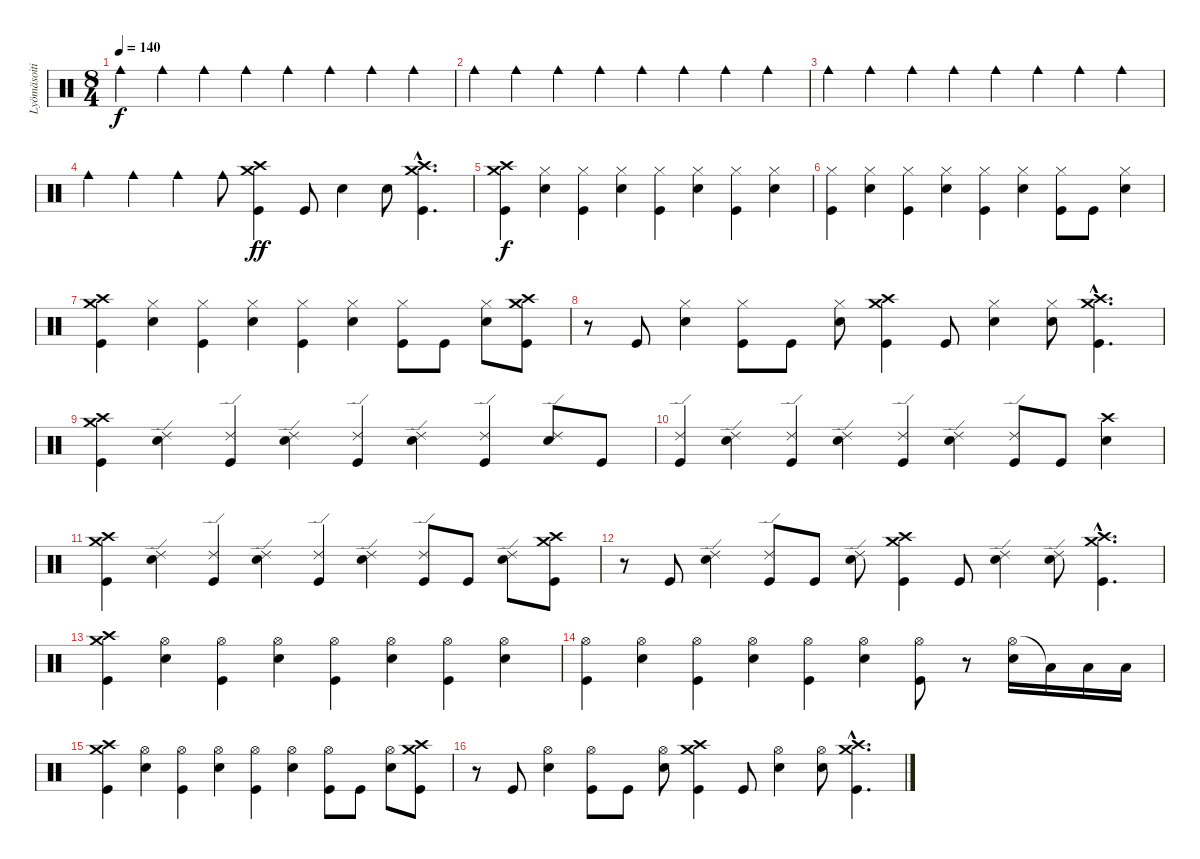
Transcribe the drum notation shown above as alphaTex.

\track ("Lyömäsoitin" "Lyömäsoiti") {instrument percussion}
\staff {score}
\articulation defaults
\ts (8 4)
\tempo 140
\clef neutral
\ks c "Cowbell medium (hit)".4{dy f} "Cowbell medium (hit)".4 "Cowbell medium (hit)".4 "Cowbell medium (hit)".4 "Cowbell medium (hit)".4 "Cowbell medium (hit)".4 "Cowbell medium (hit)".4 "Cowbell medium (hit)".4
|
"Cowbell medium (hit)".4 "Cowbell medium (hit)".4 "Cowbell medium (hit)".4 "Cowbell medium (hit)".4 "Cowbell medium (hit)".4 "Cowbell medium (hit)".4 "Cowbell medium (hit)".4 "Cowbell medium (hit)".4 |
"Cowbell medium (hit)".4 "Cowbell medium (hit)".4 "Cowbell medium (hit)".4 "Cowbell medium (hit)".4 "Cowbell medium (hit)".4 "Cowbell medium (hit)".4 "Cowbell medium (hit)".4 "Cowbell medium (hit)".4 |
"Cowbell medium (hit)".4 "Cowbell medium (hit)".4 "Cowbell medium (hit)".4 "Cowbell medium (hit)".8 ("Crash medium (hit)" "Crash high (hit)" "Kick (hit)").4{dy ff} "Kick (hit)".8 "Snare (hit) 2".4 "Snare (hit) 2".8 ("Crash medium (hit)"{hac} "Crash high (hit)"{hac} "Kick (hit)"{hac}).4{d} |
("Crash medium (hit)" "Crash high (hit)" "Kick (hit)").4{dy f} ("Hi-Hat (closed)" "Snare (hit) 2").4 ("Hi-Hat (closed)" "Kick (hit)").4 ("Hi-Hat (closed)" "Snare (hit) 2").4 ("Hi-Hat (closed)" "Kick (hit)").4 ("Hi-Hat (closed)" "Snare (hit) 2").4 ("Hi-Hat (closed)" "Kick (hit)").4 ("Hi-Hat (closed)" "Snare (hit) 2").4 |
("Hi-Hat (closed)" "Kick (hit)").4 ("Hi-Hat (closed)" "Snare (hit) 2").4 ("Hi-Hat (closed)" "Kick (hit)").4 ("Hi-Hat (closed)" "Snare (hit) 2").4 ("Hi-Hat (closed)" "Kick (hit)").4 ("Hi-Hat (closed)" "Snare (hit) 2").4 ("Hi-Hat (closed)" "Kick (hit)").8 "Kick (hit)".8 ("Hi-Hat (closed)" "Snare (hit) 2").4 |
("Crash medium (hit)" "Crash high (hit)" "Kick (hit)").4 ("Hi-Hat (closed)" "Snare (hit) 2").4 ("Hi-Hat (closed)" "Kick (hit)").4 ("Hi-Hat (closed)" "Snare (hit) 2").4 ("Hi-Hat (closed)" "Kick (hit)").4 ("Hi-Hat (closed)" "Snare (hit) 2").4 ("Hi-Hat (closed)" "Kick (hit)").8 "Kick (hit)".8 ("Hi-Hat (closed)" "Snare (hit) 2").8 ("Crash medium (hit)" "Crash high (hit)" "Kick (hit)").8 |
r.8 "Kick (hit)".8 ("Hi-Hat (closed)" "Snare (hit) 2").4 ("Hi-Hat (closed)" "Kick (hit)").8 "Kick (hit)".8 ("Hi-Hat (closed)" "Snare (hit) 2").8 ("Crash medium (hit)" "Crash high (hit)" "Kick (hit)").4 "Kick (hit)".8 ("Hi-Hat (closed)" "Snare (hit) 2").4 ("Hi-Hat (closed)" "Snare (hit) 2").8 ("Crash medium (hit)"{hac} "Crash high (hit)"{hac} "Kick (hit)"{hac}).4{d} |
("Crash medium (hit)" "Crash high (hit)" "Kick (hit)").4 ("Ride (edge) 2" "Snare (hit) 2").4 ("Ride (edge) 2" "Kick (hit)").4 ("Ride (edge) 2" "Snare (hit) 2").4 ("Ride (edge) 2" "Kick (hit)").4 ("Ride (edge) 2" "Snare (hit) 2").4 ("Ride (edge) 2" "Kick (hit)").4 ("Ride (edge) 2" "Snare (hit) 2").8 "Kick (hit)".8 |
("Ride (edge) 2" "Kick (hit)").4 ("Ride (edge) 2" "Snare (hit) 2").4 ("Ride (edge) 2" "Kick (hit)").4 ("Ride (edge) 2" "Snare (hit) 2").4 ("Ride (edge) 2" "Kick (hit)").4 ("Ride (edge) 2" "Snare (hit) 2").4 ("Ride (edge) 2" "Kick (hit)").8 "Kick (hit)".8 ("Crash high (hit)" "Snare (hit) 2").4 |
("Crash medium (hit)" "Crash high (hit)" "Kick (hit)").4 ("Ride (edge) 2" "Snare (hit) 2").4 ("Ride (edge) 2" "Kick (hit)").4 ("Ride (edge) 2" "Snare (hit) 2").4 ("Ride (edge) 2" "Kick (hit)").4 ("Ride (edge) 2" "Snare (hit) 2").4 ("Ride (edge) 2" "Kick (hit)").8 "Kick (hit)".8 ("Ride (edge) 2" "Snare (hit) 2").8 ("Crash medium (hit)" "Crash high (hit)" "Kick (hit)").8 |
r.8 "Kick (hit)".8 ("Ride (edge) 2" "Snare (hit) 2").4 ("Ride (edge) 2" "Kick (hit)").8 "Kick (hit)".8 ("Ride (edge) 2" "Snare (hit) 2").8 ("Crash medium (hit)" "Crash high (hit)" "Kick (hit)").4 "Kick (hit)".8 ("Ride (edge) 2" "Snare (hit) 2").4 ("Ride (edge) 2" "Snare (hit) 2").8 ("Crash medium (hit)"{hac} "Crash high (hit)"{hac} "Kick (hit)"{hac}).4{d} |
("Crash medium (hit)" "Crash high (hit)" "Kick (hit)").4 ("Hi-Hat (open)" "Snare (hit) 2").4 ("Hi-Hat (open)" "Kick (hit)").4 ("Hi-Hat (open)" "Snare (hit) 2").4 ("Hi-Hat (open)" "Kick (hit)").4 ("Hi-Hat (open)" "Snare (hit) 2").4 ("Hi-Hat (open)" "Kick (hit)").4 ("Hi-Hat (open)" "Snare (hit) 2").4 |
("Hi-Hat (open)" "Kick (hit)").4 ("Hi-Hat (open)" "Snare (hit) 2").4 ("Hi-Hat (open)" "Kick (hit)").4 ("Hi-Hat (open)" "Snare (hit) 2").4 ("Hi-Hat (open)" "Kick (hit)").4 ("Hi-Hat (open)" "Snare (hit) 2").4 ("Hi-Hat (open)" "Kick (hit)").8 r.8 ("Hi-Hat (open)" "Snare (hit) 2").16 "Low Tom (hit)"{t}.16 "Low Tom (hit)".16 "Low Tom (hit)".16 |
("Crash medium (hit)" "Crash high (hit)" "Kick (hit)").4 ("Hi-Hat (open)" "Snare (hit) 2").4 ("Hi-Hat (open)" "Kick (hit)").4 ("Hi-Hat (open)" "Snare (hit) 2").4 ("Hi-Hat (open)" "Kick (hit)").4 ("Hi-Hat (open)" "Snare (hit) 2").4 ("Hi-Hat (open)" "Kick (hit)").8 "Kick (hit)".8 ("Hi-Hat (open)" "Snare (hit) 2").8 ("Crash medium (hit)" "Crash high (hit)" "Kick (hit)").8 |
r.8 "Kick (hit)".8 ("Hi-Hat (open)" "Snare (hit) 2").4 ("Hi-Hat (open)" "Kick (hit)").8 "Kick (hit)".8 ("Hi-Hat (open)" "Snare (hit) 2").8 ("Crash medium (hit)" "Crash high (hit)" "Kick (hit)").4 "Kick (hit)".8 ("Hi-Hat (open)" "Snare (hit) 2").4 ("Hi-Hat (open)" "Snare (hit) 2").8 ("Crash medium (hit)"{hac} "Crash high (hit)"{hac} "Kick (hit)"{hac}).4{d}
